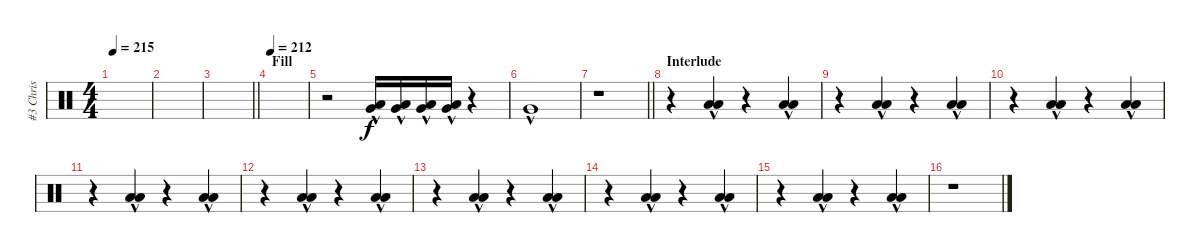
\track ("#3 Chris" "#3 Chris") {instrument percussion}
\staff {score}
\articulation defaults
\ts (4 4)
\tempo 215
\clef neutral
\ks c
|
|
\barLineRight lightlight
|
\section ("" "Fill")
\tempo 212
|
r.2{balance 5} ("Low Tom (hit)"{hac} "Very Low Tom (hit)"{hac}).16 ("Low Tom (hit)"{hac} "Very Low Tom (hit)"{hac}).16 ("Low Tom (hit)"{hac} "Very Low Tom (hit)"{hac}).16 ("Low Tom (hit)"{hac} "Very Low Tom (hit)"{hac}).16 r.4 |
"Very Low Tom (hit)"{hac}.1{balance 8} |
\barLineRight lightlight
r.1 |
\section ("" "Interlude")
r.4 ("Low Floor Tom (hit)"{hac} "Low Floor Tom (hit)"{hac}).4 r.4 ("Low Floor Tom (hit)"{hac} "Low Floor Tom (hit)"{hac}).4 |
r.4 ("Low Floor Tom (hit)"{hac} "Low Floor Tom (hit)"{hac}).4 r.4 ("Low Floor Tom (hit)"{hac} "Low Floor Tom (hit)"{hac}).4 |
r.4 ("Low Floor Tom (hit)"{hac} "Low Floor Tom (hit)"{hac}).4 r.4 ("Low Floor Tom (hit)"{hac} "Low Floor Tom (hit)"{hac}).4 |
r.4 ("Low Floor Tom (hit)"{hac} "Low Floor Tom (hit)"{hac}).4 r.4 ("Low Floor Tom (hit)"{hac} "Low Floor Tom (hit)"{hac}).4 |
r.4 ("Low Floor Tom (hit)"{hac} "Low Floor Tom (hit)"{hac}).4 r.4 ("Low Floor Tom (hit)"{hac} "Low Floor Tom (hit)"{hac}).4 |
r.4 ("Low Floor Tom (hit)"{hac} "Low Floor Tom (hit)"{hac}).4 r.4 ("Low Floor Tom (hit)"{hac} "Low Floor Tom (hit)"{hac}).4 |
r.4 ("Low Floor Tom (hit)"{hac} "Low Floor Tom (hit)"{hac}).4 r.4 ("Low Floor Tom (hit)"{hac} "Low Floor Tom (hit)"{hac}).4 |
r.4 ("Low Floor Tom (hit)"{hac} "Low Floor Tom (hit)"{hac}).4 r.4 ("Low Floor Tom (hit)"{hac} "Low Floor Tom (hit)"{hac}).4 |
r.1
